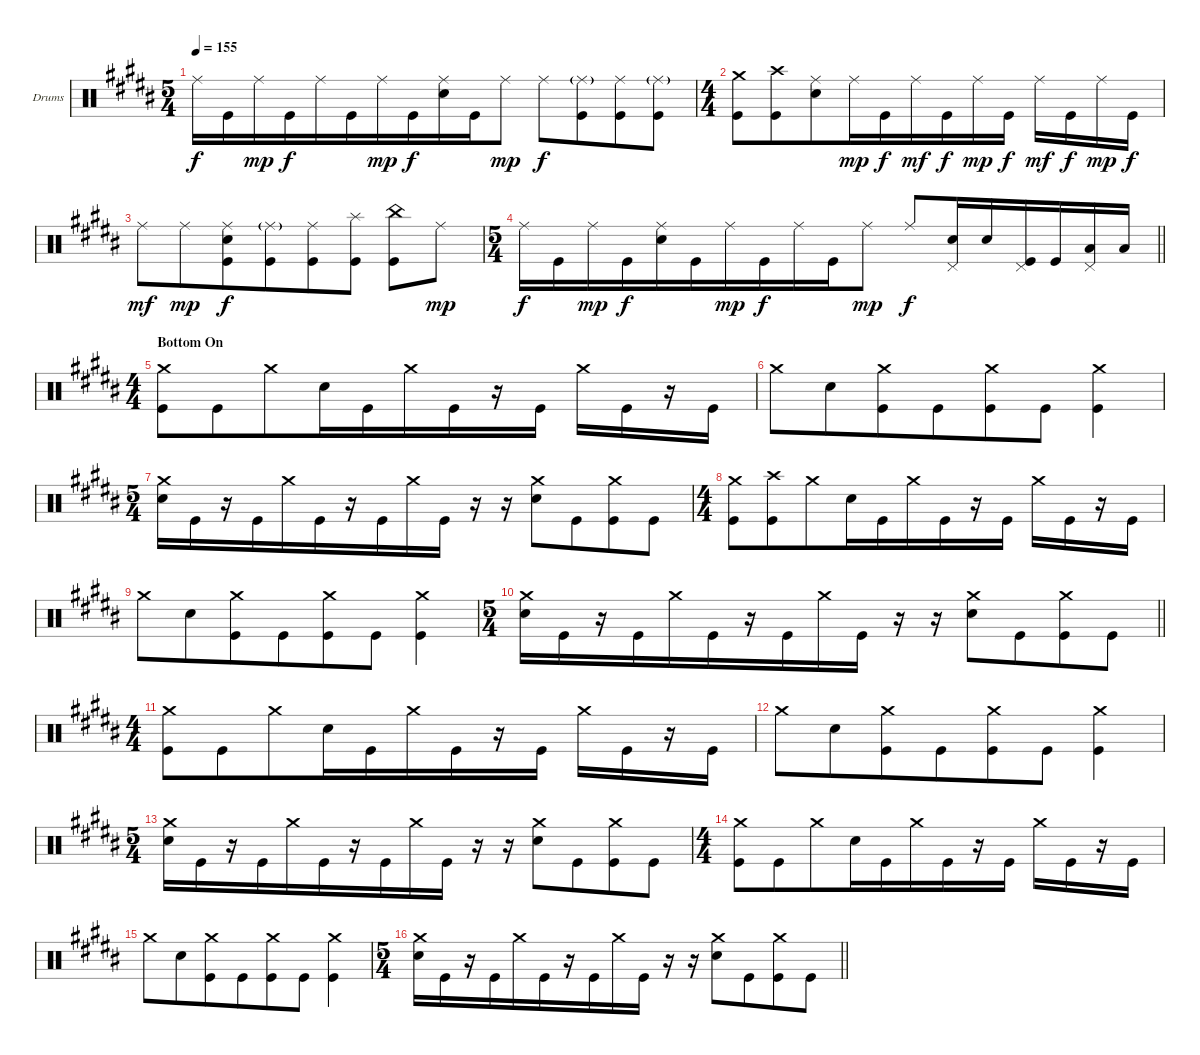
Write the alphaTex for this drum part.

\bracketExtendMode groupsimilarinstruments
\firstSystemTrackNameOrientation horizontal
\otherSystemsTrackNameOrientation horizontal
\track ("Navene Koperweis" "Drums") {instrument percussion}
\staff {score}
\articulation defaults
\ts (5 4)
\beaming (8 6 4)
\tempo 155
\clef neutral
\ks b "Ride (middle)".16{dy f} "Kick (hit)".16 "Ride (middle)".16{dy mp} "Kick (hit)".16{dy f} "Ride (middle)".16 "Kick (hit)".16 "Ride (middle)".16{dy mp} "Kick (hit)".16{dy f}
("Ride (middle)" "Snare (hit) 2").16 "Kick (hit)".16 "Ride (middle)".8{dy mp} "Ride (middle)".8{dy f} ("Ride (middle)"{g} "Kick (hit)").8 ("Ride (middle)" "Kick (hit)").8 ("Ride (middle)"{g} "Kick (hit)").8 |
\ts (4 4)
\beaming (8 6 4)
("Crash medium (hit)" "Kick (hit)").8 ("Crash high (hit)" "Kick (hit)").8 ("Ride (middle)" "Snare (hit) 2").8 "Ride (middle)".16{dy mp} "Kick (hit)".16{dy f} "Ride (middle)".16{dy mf} "Kick (hit)".16{dy f} "Ride (middle)".16{dy mp} "Kick (hit)".16{dy f} "Ride (middle)".16{dy mf} "Kick (hit)".16{dy f} "Ride (middle)".16{dy mp} "Kick (hit)".16{dy f} |
"Ride (middle)".8{dy mf} "Ride (middle)".8{dy mp} ("Ride (middle)" "Snare (hit) 2" "Kick (hit)").8{dy f} ("Ride (middle)"{g} "Kick (hit)").8 ("Ride (middle)" "Kick (hit)").8 ("Splash (hit)" "Kick (hit)").8 ("China (hit)" "Kick (hit)").8 "Ride (middle)".8{dy mp} |
\ts (5 4)
\beaming (8 6 4)
\barLineRight lightlight "Ride (middle)".16{dy f} "Kick (hit)".16 "Ride (middle)".16{dy mp} "Kick (hit)".16{dy f}
("Ride (middle)" "Snare (hit) 2").16 "Kick (hit)".16 "Ride (middle)".16{dy mp} "Kick (hit)".16{dy f} "Ride (middle)".16 "Kick (hit)".16 "Ride (middle)".8{dy mp} "Ride (middle)".8{dy f} ("Snare (hit) 2" "Pedal Hi-Hat (hit)").16 "Snare (hit) 2".16 ("Kick (hit)" "Pedal Hi-Hat (hit)").16 "Kick (hit)".16 ("Low Tom (hit)" "Pedal Hi-Hat (hit)").16 "Low Tom (hit)".16 |
\ts (4 4)
\beaming (8 6 4)
\section ("" "Bottom On")
("Crash medium (hit)" "Kick (hit)").8 "Kick (hit)".8 "Crash medium (hit)".8 "Snare (hit) 2".16 "Kick (hit)".16 "Crash medium (hit)".16 "Kick (hit)".16 r.16 "Kick (hit)".16 "Crash medium (hit)".16 "Kick (hit)".16 r.16 "Kick (hit)".16 |
"Crash medium (hit)".8 "Snare (hit) 2".8 ("Crash medium (hit)" "Kick (hit)").8 "Kick (hit)".8 ("Crash medium (hit)" "Kick (hit)").8 "Kick (hit)".8 ("Crash medium (hit)" "Kick (hit)").4 |
\ts (5 4)
\beaming (8 6 4)
("Crash medium (hit)" "Snare (hit) 2").16 "Kick (hit)".16 r.16 "Kick (hit)".16 "Crash medium (hit)".16 "Kick (hit)".16 r.16 "Kick (hit)".16 "Crash medium (hit)".16 "Kick (hit)".16 r.16 r.16 ("Crash medium (hit)" "Snare (hit) 2").8 "Kick (hit)".8 ("Crash medium (hit)" "Kick (hit)").8 "Kick (hit)".8 |
\ts (4 4)
\beaming (8 6 4)
("Crash medium (hit)" "Kick (hit)").8 ("Crash high (hit)" "Kick (hit)").8 "Crash medium (hit)".8 "Snare (hit) 2".16 "Kick (hit)".16 "Crash medium (hit)".16 "Kick (hit)".16 r.16 "Kick (hit)".16 "Crash medium (hit)".16 "Kick (hit)".16 r.16 "Kick (hit)".16 |
"Crash medium (hit)".8 "Snare (hit) 2".8 ("Crash medium (hit)" "Kick (hit)").8 "Kick (hit)".8 ("Crash medium (hit)" "Kick (hit)").8 "Kick (hit)".8 ("Crash medium (hit)" "Kick (hit)").4 |
\ts (5 4)
\beaming (8 6 4)
\barLineRight lightlight
("Crash medium (hit)" "Snare (hit) 2").16 "Kick (hit)".16 r.16 "Kick (hit)".16 "Crash medium (hit)".16 "Kick (hit)".16 r.16 "Kick (hit)".16 "Crash medium (hit)".16 "Kick (hit)".16 r.16 r.16 ("Crash medium (hit)" "Snare (hit) 2").8 "Kick (hit)".8 ("Crash medium (hit)" "Kick (hit)").8 "Kick (hit)".8 |
\ts (4 4)
\beaming (8 6 4)
("Crash medium (hit)" "Kick (hit)").8 "Kick (hit)".8 "Crash medium (hit)".8 "Snare (hit) 2".16 "Kick (hit)".16 "Crash medium (hit)".16 "Kick (hit)".16 r.16 "Kick (hit)".16 "Crash medium (hit)".16 "Kick (hit)".16 r.16 "Kick (hit)".16 |
"Crash medium (hit)".8 "Snare (hit) 2".8 ("Crash medium (hit)" "Kick (hit)").8 "Kick (hit)".8 ("Crash medium (hit)" "Kick (hit)").8 "Kick (hit)".8 ("Crash medium (hit)" "Kick (hit)").4 |
\ts (5 4)
\beaming (8 6 4)
("Crash medium (hit)" "Snare (hit) 2").16 "Kick (hit)".16 r.16 "Kick (hit)".16 "Crash medium (hit)".16 "Kick (hit)".16 r.16 "Kick (hit)".16 "Crash medium (hit)".16 "Kick (hit)".16 r.16 r.16 ("Crash medium (hit)" "Snare (hit) 2").8 "Kick (hit)".8 ("Crash medium (hit)" "Kick (hit)").8 "Kick (hit)".8 |
\ts (4 4)
\beaming (8 6 4)
("Crash medium (hit)" "Kick (hit)").8 "Kick (hit)".8 "Crash medium (hit)".8 "Snare (hit) 2".16 "Kick (hit)".16 "Crash medium (hit)".16 "Kick (hit)".16 r.16 "Kick (hit)".16 "Crash medium (hit)".16 "Kick (hit)".16 r.16 "Kick (hit)".16 |
"Crash medium (hit)".8 "Snare (hit) 2".8 ("Crash medium (hit)" "Kick (hit)").8 "Kick (hit)".8 ("Crash medium (hit)" "Kick (hit)").8 "Kick (hit)".8 ("Crash medium (hit)" "Kick (hit)").4 |
\ts (5 4)
\beaming (8 6 4)
\barLineRight lightlight
("Crash medium (hit)" "Snare (hit) 2").16 "Kick (hit)".16 r.16 "Kick (hit)".16 "Crash medium (hit)".16 "Kick (hit)".16 r.16 "Kick (hit)".16 "Crash medium (hit)".16 "Kick (hit)".16 r.16 r.16 ("Crash medium (hit)" "Snare (hit) 2").8 "Kick (hit)".8 ("Crash medium (hit)" "Kick (hit)").8 "Kick (hit)".8
